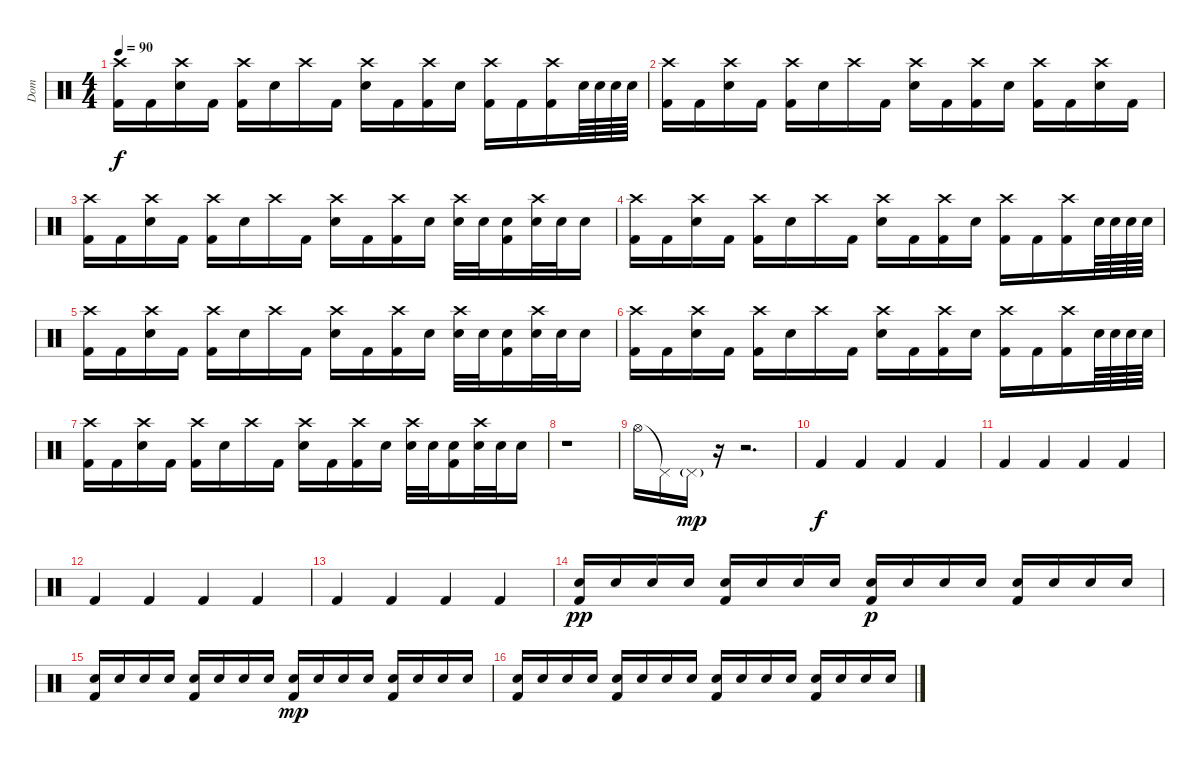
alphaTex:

\track ("Dom" "Dom") {instrument percussion}
\staff {score}
\articulation defaults
\ts (4 4)
\tempo 90
\clef neutral
\ks c
("Crash high (hit)" "Kick (hit) 2").16{dy f} "Kick (hit) 2".16 ("Crash high (hit)" "Snare (hit) 2").16 "Kick (hit) 2".16 ("Crash high (hit)" "Kick (hit) 2").16 "Snare (hit) 2".16 "Crash high (hit)".16 "Kick (hit) 2".16 ("Crash high (hit)" "Snare (hit) 2").16 "Kick (hit) 2".16 ("Crash high (hit)" "Kick (hit) 2").16 "Snare (hit) 2".16 ("Crash high (hit)" "Kick (hit) 2").16 "Kick (hit) 2".16 ("Crash high (hit)" "Kick (hit) 2").16 "Snare (hit) 2".64 "Snare (hit) 2".64 "Snare (hit) 2".64 "Snare (hit) 2".64 |
("Crash high (hit)" "Kick (hit) 2").16 "Kick (hit) 2".16 ("Crash high (hit)" "Snare (hit) 2").16 "Kick (hit) 2".16 ("Crash high (hit)" "Kick (hit) 2").16 "Snare (hit) 2".16 "Crash high (hit)".16 "Kick (hit) 2".16 ("Crash high (hit)" "Snare (hit) 2").16 "Kick (hit) 2".16 ("Crash high (hit)" "Kick (hit) 2").16 "Snare (hit) 2".16 ("Crash high (hit)" "Kick (hit) 2").16 "Kick (hit) 2".16 ("Crash high (hit)" "Snare (hit) 2").16 "Kick (hit) 2".16 |
("Crash high (hit)" "Kick (hit) 2").16 "Kick (hit) 2".16 ("Crash high (hit)" "Snare (hit) 2").16 "Kick (hit) 2".16 ("Crash high (hit)" "Kick (hit) 2").16 "Snare (hit) 2".16 "Crash high (hit)".16 "Kick (hit) 2".16 ("Crash high (hit)" "Snare (hit) 2").16 "Kick (hit) 2".16 ("Crash high (hit)" "Kick (hit) 2").16 "Snare (hit) 2".16 ("Crash high (hit)" "Snare (hit) 2").32 "Snare (hit) 2".32 ("Snare (hit) 2" "Kick (hit) 2").16 ("Crash high (hit)" "Snare (hit) 2").32 "Snare (hit) 2".32 "Snare (hit) 2".16 |
("Crash high (hit)" "Kick (hit) 2").16 "Kick (hit) 2".16 ("Crash high (hit)" "Snare (hit) 2").16 "Kick (hit) 2".16 ("Crash high (hit)" "Kick (hit) 2").16 "Snare (hit) 2".16 "Crash high (hit)".16 "Kick (hit) 2".16 ("Crash high (hit)" "Snare (hit) 2").16 "Kick (hit) 2".16 ("Crash high (hit)" "Kick (hit) 2").16 "Snare (hit) 2".16 ("Crash high (hit)" "Kick (hit) 2").16 "Kick (hit) 2".16 ("Crash high (hit)" "Kick (hit) 2").16 "Snare (hit) 2".64 "Snare (hit) 2".64 "Snare (hit) 2".64 "Snare (hit) 2".64 |
("Crash high (hit)" "Kick (hit) 2").16 "Kick (hit) 2".16 ("Crash high (hit)" "Snare (hit) 2").16 "Kick (hit) 2".16 ("Crash high (hit)" "Kick (hit) 2").16 "Snare (hit) 2".16 "Crash high (hit)".16 "Kick (hit) 2".16 ("Crash high (hit)" "Snare (hit) 2").16 "Kick (hit) 2".16 ("Crash high (hit)" "Kick (hit) 2").16 "Snare (hit) 2".16 ("Crash high (hit)" "Snare (hit) 2").32 "Snare (hit) 2".32 ("Snare (hit) 2" "Kick (hit) 2").16 ("Crash high (hit)" "Snare (hit) 2").32 "Snare (hit) 2".32 "Snare (hit) 2".16 |
("Crash high (hit)" "Kick (hit) 2").16 "Kick (hit) 2".16 ("Crash high (hit)" "Snare (hit) 2").16 "Kick (hit) 2".16 ("Crash high (hit)" "Kick (hit) 2").16 "Snare (hit) 2".16 "Crash high (hit)".16 "Kick (hit) 2".16 ("Crash high (hit)" "Snare (hit) 2").16 "Kick (hit) 2".16 ("Crash high (hit)" "Kick (hit) 2").16 "Snare (hit) 2".16 ("Crash high (hit)" "Kick (hit) 2").16 "Kick (hit) 2".16 ("Crash high (hit)" "Kick (hit) 2").16 "Snare (hit) 2".64 "Snare (hit) 2".64 "Snare (hit) 2".64 "Snare (hit) 2".64 |
("Crash high (hit)" "Kick (hit) 2").16 "Kick (hit) 2".16 ("Crash high (hit)" "Snare (hit) 2").16 "Kick (hit) 2".16 ("Crash high (hit)" "Kick (hit) 2").16 "Snare (hit) 2".16 "Crash high (hit)".16 "Kick (hit) 2".16 ("Crash high (hit)" "Snare (hit) 2").16 "Kick (hit) 2".16 ("Crash high (hit)" "Kick (hit) 2").16 "Snare (hit) 2".16 ("Crash high (hit)" "Snare (hit) 2").32 "Snare (hit) 2".32 ("Snare (hit) 2" "Kick (hit) 2").16 ("Crash high (hit)" "Snare (hit) 2").32 "Snare (hit) 2".32 "Snare (hit) 2".16 |
r.1 |
"Hi-Hat (open)".16 "Pedal Hi-Hat (hit)"{t}.16 "Pedal Hi-Hat (hit)"{g}.16{dy mp} r.16 r.2{d} |
"Kick (hit) 2".4{dy f} "Kick (hit) 2".4 "Kick (hit) 2".4 "Kick (hit) 2".4 |
"Kick (hit) 2".4 "Kick (hit) 2".4 "Kick (hit) 2".4 "Kick (hit) 2".4 |
"Kick (hit) 2".4 "Kick (hit) 2".4 "Kick (hit) 2".4 "Kick (hit) 2".4 |
"Kick (hit) 2".4 "Kick (hit) 2".4 "Kick (hit) 2".4 "Kick (hit) 2".4 |
("Snare (hit) 2" "Kick (hit) 2").16{dy pp} "Snare (hit) 2".16 "Snare (hit) 2".16 "Snare (hit) 2".16 ("Snare (hit) 2" "Kick (hit) 2").16 "Snare (hit) 2".16 "Snare (hit) 2".16 "Snare (hit) 2".16 ("Snare (hit) 2" "Kick (hit) 2").16{dy p} "Snare (hit) 2".16 "Snare (hit) 2".16 "Snare (hit) 2".16 ("Snare (hit) 2" "Kick (hit) 2").16 "Snare (hit) 2".16 "Snare (hit) 2".16 "Snare (hit) 2".16 |
("Snare (hit) 2" "Kick (hit) 2").16 "Snare (hit) 2".16 "Snare (hit) 2".16 "Snare (hit) 2".16 ("Snare (hit) 2" "Kick (hit) 2").16 "Snare (hit) 2".16 "Snare (hit) 2".16 "Snare (hit) 2".16 ("Snare (hit) 2" "Kick (hit) 2").16{dy mp} "Snare (hit) 2".16 "Snare (hit) 2".16 "Snare (hit) 2".16 ("Snare (hit) 2" "Kick (hit) 2").16 "Snare (hit) 2".16 "Snare (hit) 2".16 "Snare (hit) 2".16 |
("Snare (hit) 2" "Kick (hit) 2").16 "Snare (hit) 2".16 "Snare (hit) 2".16 "Snare (hit) 2".16 ("Snare (hit) 2" "Kick (hit) 2").16 "Snare (hit) 2".16 "Snare (hit) 2".16 "Snare (hit) 2".16 ("Snare (hit) 2" "Kick (hit) 2").16 "Snare (hit) 2".16 "Snare (hit) 2".16 "Snare (hit) 2".16 ("Snare (hit) 2" "Kick (hit) 2").16 "Snare (hit) 2".16 "Snare (hit) 2".16 "Snare (hit) 2".16
